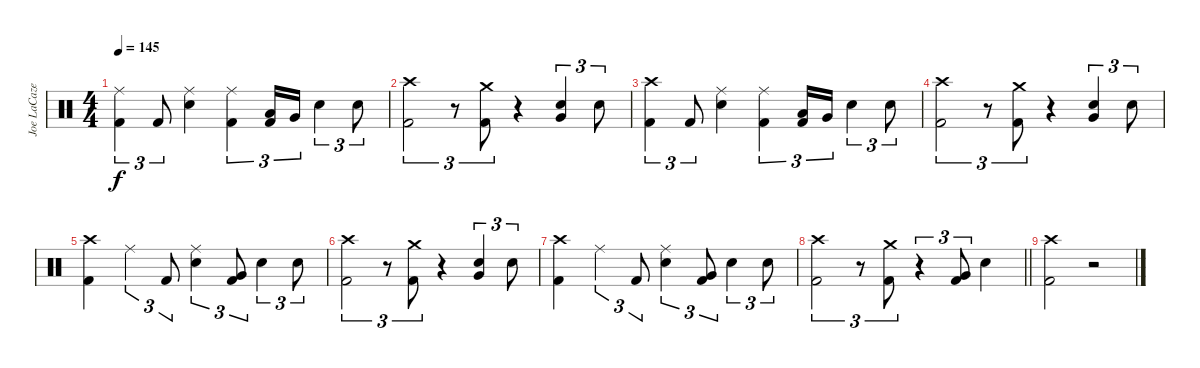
\track ("Joe LaCaze" "Joe LaCaze") {instrument percussion}
\staff {score}
\articulation defaults
\ts (4 4)
\tempo 145
\clef neutral
\ks c
("Ride (middle)" "Kick (hit) 2").4{tu (3 2) dy f} "Kick (hit) 2".8{tu (3 2)} ("Ride (middle)" "Electric Snare (hit)").4 ("Ride (middle)" "Kick (hit) 2").4{tu (3 2)} ("Low Tom (hit)" "Kick (hit) 2").16{tu (3 2)} "Very Low Tom (hit)".16{tu (3 2)} "Electric Snare (hit)".4{tu (3 2)} "Electric Snare (hit)".8{tu (3 2)} |
("Crash high (hit)" "Kick (hit) 2").2{tu (3 2)} r.8{tu (3 2)} ("Crash medium (hit)" "Kick (hit) 2").8{tu (3 2)} r.4 ("Electric Snare (hit)" "Very Low Tom (hit)").4{tu (3 2)} "Electric Snare (hit)".8{tu (3 2)} |
("Crash high (hit)" "Kick (hit) 2").4{tu (3 2)} "Kick (hit) 2".8{tu (3 2)} ("Ride (middle)" "Electric Snare (hit)").4 ("Ride (middle)" "Kick (hit) 2").4{tu (3 2)} ("Low Tom (hit)" "Kick (hit) 2").16{tu (3 2)} "Very Low Tom (hit)".16{tu (3 2)} "Electric Snare (hit)".4{tu (3 2)} "Electric Snare (hit)".8{tu (3 2)} |
("Crash high (hit)" "Kick (hit) 2").2{tu (3 2)} r.8{tu (3 2)} ("Crash medium (hit)" "Kick (hit) 2").8{tu (3 2)} r.4 ("Electric Snare (hit)" "Very Low Tom (hit)").4{tu (3 2)} "Electric Snare (hit)".8{tu (3 2)} |
("Crash high (hit)" "Kick (hit) 2").4 "Ride (middle)".4{tu (3 2)} "Kick (hit) 2".8{tu (3 2)} ("Ride (middle)" "Electric Snare (hit)").4{tu (3 2)} ("Very Low Tom (hit)" "Kick (hit) 2").8{tu (3 2)} "Electric Snare (hit)".4{tu (3 2)} "Electric Snare (hit)".8{tu (3 2)} |
("Crash high (hit)" "Kick (hit) 2").2{tu (3 2)} r.8{tu (3 2)} ("Crash medium (hit)" "Kick (hit) 2").8{tu (3 2)} r.4 ("Electric Snare (hit)" "Very Low Tom (hit)").4{tu (3 2)} "Electric Snare (hit)".8{tu (3 2)} |
("Crash high (hit)" "Kick (hit) 2").4 "Ride (middle)".4{tu (3 2)} "Kick (hit) 2".8{tu (3 2)} ("Ride (middle)" "Electric Snare (hit)").4{tu (3 2)} ("Very Low Tom (hit)" "Kick (hit) 2").8{tu (3 2)} "Electric Snare (hit)".4{tu (3 2)} "Electric Snare (hit)".8{tu (3 2)} |
\barLineRight lightlight
("Crash high (hit)" "Kick (hit) 2").2{tu (3 2)} r.8{tu (3 2)} ("Crash medium (hit)" "Kick (hit) 2").8{tu (3 2)} r.4{tu (3 2)} ("Very Low Tom (hit)" "Kick (hit) 2").8{tu (3 2)} "Electric Snare (hit)".4 |
\section ("" "")
("Crash high (hit)" "Kick (hit) 2").2 r.2{volume 0}
